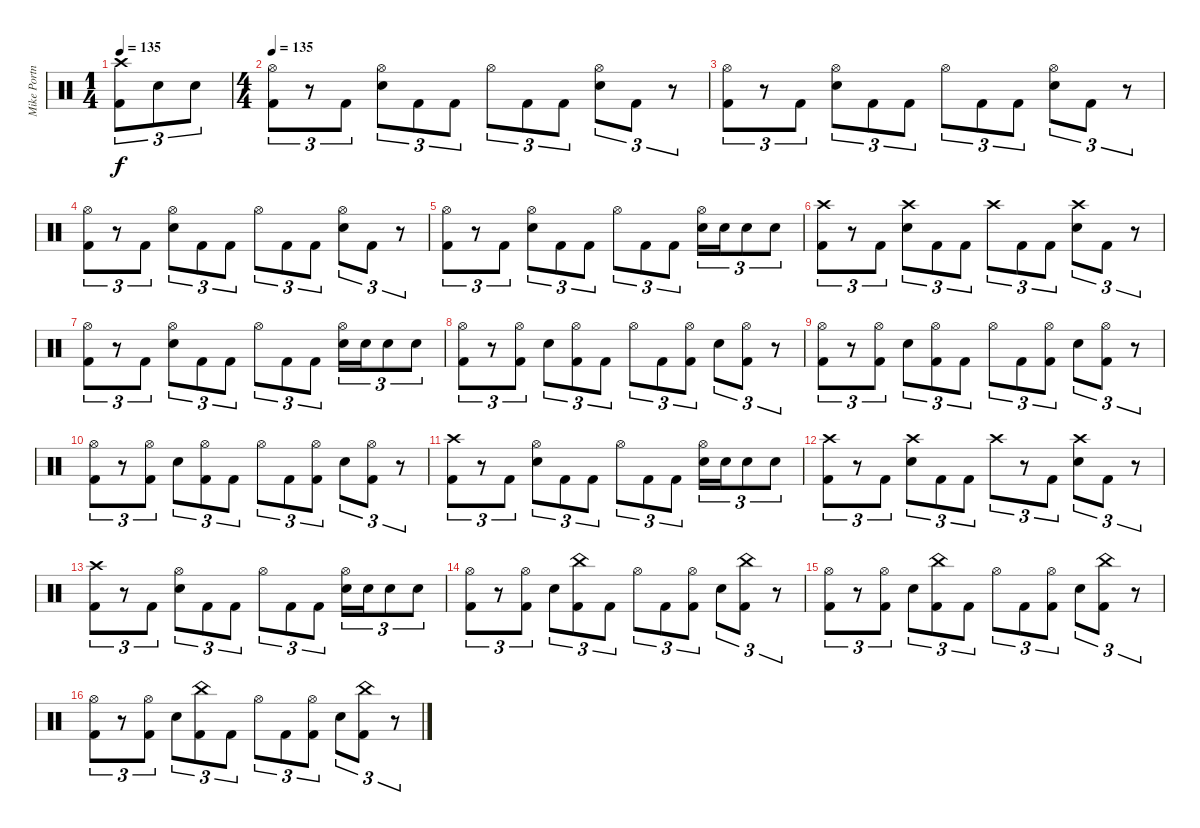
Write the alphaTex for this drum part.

\track ("Mike Portnoy" "Mike Portn") {instrument percussion}
\staff {score}
\articulation defaults
\ts (1 4)
\tempo 135
\clef neutral
\ks c
("Crash high (hit)" "Kick (hit) 2").8{tu (3 2) dy f} "Snare (hit) 2".8{tu (3 2)} "Snare (hit) 2".8{tu (3 2)} |
\ts (4 4)
\tempo 135
("Hi-Hat (open)" "Kick (hit) 2").8{tu (3 2)} r.8{tu (3 2)} "Kick (hit) 2".8{tu (3 2)} ("Hi-Hat (open)" "Snare (hit) 2").8{tu (3 2)} "Kick (hit) 2".8{tu (3 2)} "Kick (hit) 2".8{tu (3 2)} "Hi-Hat (open)".8{tu (3 2)} "Kick (hit) 2".8{tu (3 2)} "Kick (hit) 2".8{tu (3 2)} ("Hi-Hat (open)" "Snare (hit) 2").8{tu (3 2)} "Kick (hit) 2".8{tu (3 2)} r.8{tu (3 2)} |
("Hi-Hat (open)" "Kick (hit) 2").8{tu (3 2)} r.8{tu (3 2)} "Kick (hit) 2".8{tu (3 2)} ("Hi-Hat (open)" "Snare (hit) 2").8{tu (3 2)} "Kick (hit) 2".8{tu (3 2)} "Kick (hit) 2".8{tu (3 2)} "Hi-Hat (open)".8{tu (3 2)} "Kick (hit) 2".8{tu (3 2)} "Kick (hit) 2".8{tu (3 2)} ("Hi-Hat (open)" "Snare (hit) 2").8{tu (3 2)} "Kick (hit) 2".8{tu (3 2)} r.8{tu (3 2)} |
("Hi-Hat (open)" "Kick (hit) 2").8{tu (3 2)} r.8{tu (3 2)} "Kick (hit) 2".8{tu (3 2)} ("Hi-Hat (open)" "Snare (hit) 2").8{tu (3 2)} "Kick (hit) 2".8{tu (3 2)} "Kick (hit) 2".8{tu (3 2)} "Hi-Hat (open)".8{tu (3 2)} "Kick (hit) 2".8{tu (3 2)} "Kick (hit) 2".8{tu (3 2)} ("Hi-Hat (open)" "Snare (hit) 2").8{tu (3 2)} "Kick (hit) 2".8{tu (3 2)} r.8{tu (3 2)} |
("Hi-Hat (open)" "Kick (hit) 2").8{tu (3 2)} r.8{tu (3 2)} "Kick (hit) 2".8{tu (3 2)} ("Hi-Hat (open)" "Snare (hit) 2").8{tu (3 2)} "Kick (hit) 2".8{tu (3 2)} "Kick (hit) 2".8{tu (3 2)} "Hi-Hat (open)".8{tu (3 2)} "Kick (hit) 2".8{tu (3 2)} "Kick (hit) 2".8{tu (3 2)} ("Hi-Hat (open)" "Snare (hit) 2").16{tu (3 2)} "Snare (hit) 2".16{tu (3 2)} "Snare (hit) 2".8{tu (3 2)} "Snare (hit) 2".8{tu (3 2)} |
("Crash high (hit)" "Kick (hit) 2").8{tu (3 2)} r.8{tu (3 2)} "Kick (hit) 2".8{tu (3 2)} ("Crash high (hit)" "Snare (hit) 2").8{tu (3 2)} "Kick (hit) 2".8{tu (3 2)} "Kick (hit) 2".8{tu (3 2)} "Crash high (hit)".8{tu (3 2)} "Kick (hit) 2".8{tu (3 2)} "Kick (hit) 2".8{tu (3 2)} ("Crash high (hit)" "Snare (hit) 2").8{tu (3 2)} "Kick (hit) 2".8{tu (3 2)} r.8{tu (3 2)} |
("Hi-Hat (open)" "Kick (hit) 2").8{tu (3 2)} r.8{tu (3 2)} "Kick (hit) 2".8{tu (3 2)} ("Hi-Hat (open)" "Snare (hit) 2").8{tu (3 2)} "Kick (hit) 2".8{tu (3 2)} "Kick (hit) 2".8{tu (3 2)} "Hi-Hat (open)".8{tu (3 2)} "Kick (hit) 2".8{tu (3 2)} "Kick (hit) 2".8{tu (3 2)} ("Hi-Hat (open)" "Snare (hit) 2").16{tu (3 2)} "Snare (hit) 2".16{tu (3 2)} "Snare (hit) 2".8{tu (3 2)} "Snare (hit) 2".8{tu (3 2)} |
("Hi-Hat (open)" "Kick (hit) 2").8{tu (3 2)} r.8{tu (3 2)} ("Hi-Hat (open)" "Kick (hit) 2").8{tu (3 2)} "Snare (hit) 2".8{tu (3 2)} ("Hi-Hat (open)" "Kick (hit) 2").8{tu (3 2)} "Kick (hit) 2".8{tu (3 2)} "Hi-Hat (open)".8{tu (3 2)} "Kick (hit) 2".8{tu (3 2)} ("Hi-Hat (open)" "Kick (hit) 2").8{tu (3 2)} "Snare (hit) 2".8{tu (3 2)} ("Hi-Hat (open)" "Kick (hit) 2").8{tu (3 2)} r.8{tu (3 2)} |
("Hi-Hat (open)" "Kick (hit) 2").8{tu (3 2)} r.8{tu (3 2)} ("Hi-Hat (open)" "Kick (hit) 2").8{tu (3 2)} "Snare (hit) 2".8{tu (3 2)} ("Hi-Hat (open)" "Kick (hit) 2").8{tu (3 2)} "Kick (hit) 2".8{tu (3 2)} "Hi-Hat (open)".8{tu (3 2)} "Kick (hit) 2".8{tu (3 2)} ("Hi-Hat (open)" "Kick (hit) 2").8{tu (3 2)} "Snare (hit) 2".8{tu (3 2)} ("Hi-Hat (open)" "Kick (hit) 2").8{tu (3 2)} r.8{tu (3 2)} |
("Hi-Hat (open)" "Kick (hit) 2").8{tu (3 2)} r.8{tu (3 2)} ("Hi-Hat (open)" "Kick (hit) 2").8{tu (3 2)} "Snare (hit) 2".8{tu (3 2)} ("Hi-Hat (open)" "Kick (hit) 2").8{tu (3 2)} "Kick (hit) 2".8{tu (3 2)} "Hi-Hat (open)".8{tu (3 2)} "Kick (hit) 2".8{tu (3 2)} ("Hi-Hat (open)" "Kick (hit) 2").8{tu (3 2)} "Snare (hit) 2".8{tu (3 2)} ("Hi-Hat (open)" "Kick (hit) 2").8{tu (3 2)} r.8{tu (3 2)} |
("Crash high (hit)" "Kick (hit) 2").8{tu (3 2)} r.8{tu (3 2)} "Kick (hit) 2".8{tu (3 2)} ("Hi-Hat (open)" "Snare (hit) 2").8{tu (3 2)} "Kick (hit) 2".8{tu (3 2)} "Kick (hit) 2".8{tu (3 2)} "Hi-Hat (open)".8{tu (3 2)} "Kick (hit) 2".8{tu (3 2)} "Kick (hit) 2".8{tu (3 2)} ("Hi-Hat (open)" "Snare (hit) 2").16{tu (3 2)} "Snare (hit) 2".16{tu (3 2)} "Snare (hit) 2".8{tu (3 2)} "Snare (hit) 2".8{tu (3 2)} |
("Crash high (hit)" "Kick (hit) 2").8{tu (3 2)} r.8{tu (3 2)} "Kick (hit) 2".8{tu (3 2)} ("Crash high (hit)" "Snare (hit) 2").8{tu (3 2)} "Kick (hit) 2".8{tu (3 2)} "Kick (hit) 2".8{tu (3 2)} "Crash high (hit)".8{tu (3 2)} r.8{tu (3 2)} "Kick (hit) 2".8{tu (3 2)} ("Crash high (hit)" "Snare (hit) 2").8{tu (3 2)} "Kick (hit) 2".8{tu (3 2)} r.8{tu (3 2)} |
("Crash high (hit)" "Kick (hit) 2").8{tu (3 2)} r.8{tu (3 2)} "Kick (hit) 2".8{tu (3 2)} ("Hi-Hat (open)" "Snare (hit) 2").8{tu (3 2)} "Kick (hit) 2".8{tu (3 2)} "Kick (hit) 2".8{tu (3 2)} "Hi-Hat (open)".8{tu (3 2)} "Kick (hit) 2".8{tu (3 2)} "Kick (hit) 2".8{tu (3 2)} ("Hi-Hat (open)" "Snare (hit) 2").16{tu (3 2)} "Snare (hit) 2".16{tu (3 2)} "Snare (hit) 2".8{tu (3 2)} "Snare (hit) 2".8{tu (3 2)} |
("Hi-Hat (open)" "Kick (hit) 2").8{tu (3 2)} r.8{tu (3 2)} ("Hi-Hat (open)" "Kick (hit) 2").8{tu (3 2)} "Snare (hit) 2".8{tu (3 2)} ("China (hit)" "Kick (hit) 2").8{tu (3 2)} "Kick (hit) 2".8{tu (3 2)} "Hi-Hat (open)".8{tu (3 2)} "Kick (hit) 2".8{tu (3 2)} ("Hi-Hat (open)" "Kick (hit) 2").8{tu (3 2)} "Snare (hit) 2".8{tu (3 2)} ("China (hit)" "Kick (hit) 2").8{tu (3 2)} r.8{tu (3 2)} |
("Hi-Hat (open)" "Kick (hit) 2").8{tu (3 2)} r.8{tu (3 2)} ("Hi-Hat (open)" "Kick (hit) 2").8{tu (3 2)} "Snare (hit) 2".8{tu (3 2)} ("China (hit)" "Kick (hit) 2").8{tu (3 2)} "Kick (hit) 2".8{tu (3 2)} "Hi-Hat (open)".8{tu (3 2)} "Kick (hit) 2".8{tu (3 2)} ("Hi-Hat (open)" "Kick (hit) 2").8{tu (3 2)} "Snare (hit) 2".8{tu (3 2)} ("China (hit)" "Kick (hit) 2").8{tu (3 2)} r.8{tu (3 2)} |
("Hi-Hat (open)" "Kick (hit) 2").8{tu (3 2)} r.8{tu (3 2)} ("Hi-Hat (open)" "Kick (hit) 2").8{tu (3 2)} "Snare (hit) 2".8{tu (3 2)} ("China (hit)" "Kick (hit) 2").8{tu (3 2)} "Kick (hit) 2".8{tu (3 2)} "Hi-Hat (open)".8{tu (3 2)} "Kick (hit) 2".8{tu (3 2)} ("Hi-Hat (open)" "Kick (hit) 2").8{tu (3 2)} "Snare (hit) 2".8{tu (3 2)} ("China (hit)" "Kick (hit) 2").8{tu (3 2)} r.8{tu (3 2)}
